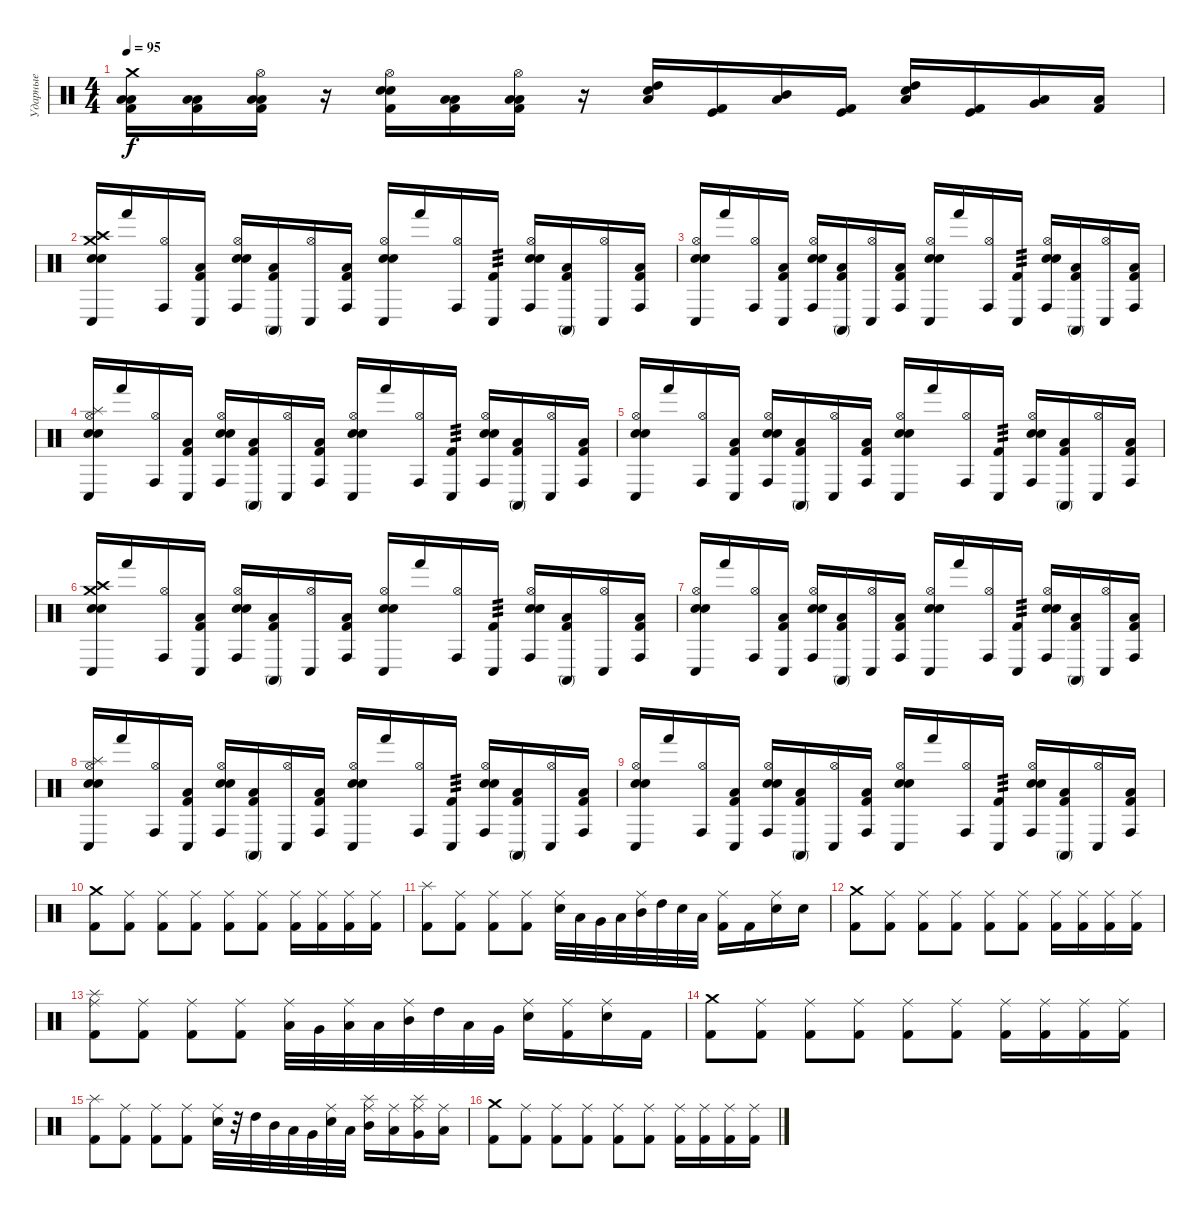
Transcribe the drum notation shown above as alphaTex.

\track ("Ударные" "Ударные") {instrument percussion}
\staff
\articulation defaults
\ts (4 4)
\tempo 95
\clef neutral
\ks c
("Crash medium (hit)" "Low Tom (hit)" "Low Floor Tom (hit)" "Kick (hit) 2").16{dy f} ("Low Tom (hit)" "Low Floor Tom (hit)" "Kick (hit) 2").16 ("Hi-Hat (open)" "Low Tom (hit)" "Low Floor Tom (hit)" "Kick (hit) 2").16 r.16 ("Hi-Hat (open)" "Electric Snare (hit)" "Snare (hit) 2" "Kick (hit) 2").16 ("Low Tom (hit)" "Low Floor Tom (hit)" "Kick (hit) 2").16 ("Hi-Hat (open)" "Low Tom (hit)" "Low Floor Tom (hit)" "Kick (hit) 2").16 r.16 ("Low Tom (hit)" "High Tom (hit)" "Electric Snare (hit)").16{bd 60} ("Kick (hit)" "Kick (hit) 2").16 ("Mid Tom (hit)" "Low Tom (hit)").16{bu 60} ("Kick (hit)" "Kick (hit) 2").16 ("Low Tom (hit)" "High Tom (hit)" "Electric Snare (hit)").16{bd 60} ("Kick (hit)" "Kick (hit) 2").16 ("Very Low Tom (hit)" "Low Tom (hit)").16{bu 60} ("Low Floor Tom (hit)" "Kick (hit) 2").16 |
("Crash medium (hit)" "Crash high (hit)" "Conga low (hit)" "Snare (hit) 2" "Electric Snare (hit)").16 "Hand (hit)".16 ("Hi-Hat (open)" "Conga high (hit)").16 ("Conga low (hit)" "Low Floor Tom (hit)" "Kick (hit) 2").16 ("Hi-Hat (open)" "Conga high (hit)" "Snare (hit) 2" "Electric Snare (hit)").16 ("Conga high (mute)" "Low Floor Tom (hit)" "Kick (hit) 2").16 ("Hi-Hat (open)" "Conga low (hit)").16 ("Conga high (hit)" "Low Floor Tom (hit)" "Kick (hit) 2").16 ("Hi-Hat (open)" "Conga low (hit)" "Snare (hit) 2" "Electric Snare (hit)").16 "Hand (hit)".16 ("Hi-Hat (open)" "Conga high (hit)").16 ("Conga low (hit)" "Kick (hit) 2").16{tp 3} ("Hi-Hat (open)" "Conga high (hit)" "Snare (hit) 2" "Electric Snare (hit)").16 ("Conga high (mute)" "Low Floor Tom (hit)" "Kick (hit) 2").16 ("Hi-Hat (open)" "Conga low (hit)").16 ("Conga high (hit)" "Low Floor Tom (hit)" "Kick (hit) 2").16 |
("Hi-Hat (open)" "Conga low (hit)" "Snare (hit) 2" "Electric Snare (hit)").16 "Hand (hit)".16 ("Hi-Hat (open)" "Conga high (hit)").16 ("Conga low (hit)" "Low Floor Tom (hit)" "Kick (hit) 2").16 ("Hi-Hat (open)" "Conga high (hit)" "Snare (hit) 2" "Electric Snare (hit)").16 ("Conga high (mute)" "Low Floor Tom (hit)" "Kick (hit) 2").16 ("Hi-Hat (open)" "Conga low (hit)").16 ("Conga high (hit)" "Low Floor Tom (hit)" "Kick (hit) 2").16 ("Hi-Hat (open)" "Conga low (hit)" "Snare (hit) 2" "Electric Snare (hit)").16 "Hand (hit)".16 ("Hi-Hat (open)" "Conga high (hit)").16 ("Conga low (hit)" "Kick (hit) 2").16{tp 3} ("Hi-Hat (open)" "Conga high (hit)" "Snare (hit) 2" "Electric Snare (hit)").16 ("Conga high (mute)" "Low Floor Tom (hit)" "Kick (hit) 2").16 ("Hi-Hat (open)" "Conga low (hit)").16 ("Conga high (hit)" "Low Floor Tom (hit)" "Kick (hit) 2").16 |
("Splash (hit)" "Hi-Hat (open)" "Conga low (hit)" "Snare (hit) 2" "Electric Snare (hit)").16 "Hand (hit)".16 ("Hi-Hat (open)" "Conga high (hit)").16 ("Conga low (hit)" "Low Floor Tom (hit)" "Kick (hit) 2").16 ("Hi-Hat (open)" "Conga high (hit)" "Snare (hit) 2" "Electric Snare (hit)").16 ("Conga high (mute)" "Low Floor Tom (hit)" "Kick (hit) 2").16 ("Hi-Hat (open)" "Conga low (hit)").16 ("Conga high (hit)" "Low Floor Tom (hit)" "Kick (hit) 2").16 ("Hi-Hat (open)" "Conga low (hit)" "Snare (hit) 2" "Electric Snare (hit)").16 "Hand (hit)".16 ("Hi-Hat (open)" "Conga high (hit)").16 ("Conga low (hit)" "Kick (hit) 2").16{tp 3} ("Hi-Hat (open)" "Conga high (hit)" "Snare (hit) 2" "Electric Snare (hit)").16 ("Conga high (mute)" "Low Floor Tom (hit)" "Kick (hit) 2").16 ("Hi-Hat (open)" "Conga low (hit)").16 ("Conga high (hit)" "Low Floor Tom (hit)" "Kick (hit) 2").16 |
("Hi-Hat (open)" "Conga low (hit)" "Snare (hit) 2" "Electric Snare (hit)").16 "Hand (hit)".16 ("Hi-Hat (open)" "Conga high (hit)").16 ("Conga low (hit)" "Low Floor Tom (hit)" "Kick (hit) 2").16 ("Hi-Hat (open)" "Conga high (hit)" "Snare (hit) 2" "Electric Snare (hit)").16 ("Conga high (mute)" "Low Floor Tom (hit)" "Kick (hit) 2").16 ("Hi-Hat (open)" "Conga low (hit)").16 ("Conga high (hit)" "Low Floor Tom (hit)" "Kick (hit) 2").16 ("Hi-Hat (open)" "Conga low (hit)" "Snare (hit) 2" "Electric Snare (hit)").16 "Hand (hit)".16 ("Hi-Hat (open)" "Conga high (hit)").16 ("Conga low (hit)" "Kick (hit) 2").16{tp 3} ("Hi-Hat (open)" "Conga high (hit)" "Snare (hit) 2" "Electric Snare (hit)").16 ("Conga high (mute)" "Low Floor Tom (hit)" "Kick (hit) 2").16 ("Hi-Hat (open)" "Conga low (hit)").16 ("Conga high (hit)" "Low Floor Tom (hit)" "Kick (hit) 2").16 |
("Crash medium (hit)" "Crash high (hit)" "Conga low (hit)" "Snare (hit) 2" "Electric Snare (hit)").16 "Hand (hit)".16 ("Hi-Hat (open)" "Conga high (hit)").16 ("Conga low (hit)" "Low Floor Tom (hit)" "Kick (hit) 2").16 ("Hi-Hat (open)" "Conga high (hit)" "Snare (hit) 2" "Electric Snare (hit)").16 ("Conga high (mute)" "Low Floor Tom (hit)" "Kick (hit) 2").16 ("Hi-Hat (open)" "Conga low (hit)").16 ("Conga high (hit)" "Low Floor Tom (hit)" "Kick (hit) 2").16 ("Hi-Hat (open)" "Conga low (hit)" "Snare (hit) 2" "Electric Snare (hit)").16 "Hand (hit)".16 ("Hi-Hat (open)" "Conga high (hit)").16 ("Conga low (hit)" "Kick (hit) 2").16{tp 3} ("Hi-Hat (open)" "Conga high (hit)" "Snare (hit) 2" "Electric Snare (hit)").16 ("Conga high (mute)" "Low Floor Tom (hit)" "Kick (hit) 2").16 ("Hi-Hat (open)" "Conga low (hit)").16 ("Conga high (hit)" "Low Floor Tom (hit)" "Kick (hit) 2").16 |
("Hi-Hat (open)" "Conga low (hit)" "Snare (hit) 2" "Electric Snare (hit)").16 "Hand (hit)".16 ("Hi-Hat (open)" "Conga high (hit)").16 ("Conga low (hit)" "Low Floor Tom (hit)" "Kick (hit) 2").16 ("Hi-Hat (open)" "Conga high (hit)" "Snare (hit) 2" "Electric Snare (hit)").16 ("Conga high (mute)" "Low Floor Tom (hit)" "Kick (hit) 2").16 ("Hi-Hat (open)" "Conga low (hit)").16 ("Conga high (hit)" "Low Floor Tom (hit)" "Kick (hit) 2").16 ("Hi-Hat (open)" "Conga low (hit)" "Snare (hit) 2" "Electric Snare (hit)").16 "Hand (hit)".16 ("Hi-Hat (open)" "Conga high (hit)").16 ("Conga low (hit)" "Kick (hit) 2").16{tp 3} ("Hi-Hat (open)" "Conga high (hit)" "Snare (hit) 2" "Electric Snare (hit)").16 ("Conga high (mute)" "Low Floor Tom (hit)" "Kick (hit) 2").16 ("Hi-Hat (open)" "Conga low (hit)").16 ("Conga high (hit)" "Low Floor Tom (hit)" "Kick (hit) 2").16 |
("Splash (hit)" "Hi-Hat (open)" "Conga low (hit)" "Snare (hit) 2" "Electric Snare (hit)").16 "Hand (hit)".16 ("Hi-Hat (open)" "Conga high (hit)").16 ("Conga low (hit)" "Low Floor Tom (hit)" "Kick (hit) 2").16 ("Hi-Hat (open)" "Conga high (hit)" "Snare (hit) 2" "Electric Snare (hit)").16 ("Conga high (mute)" "Low Floor Tom (hit)" "Kick (hit) 2").16 ("Hi-Hat (open)" "Conga low (hit)").16 ("Conga high (hit)" "Low Floor Tom (hit)" "Kick (hit) 2").16 ("Hi-Hat (open)" "Conga low (hit)" "Snare (hit) 2" "Electric Snare (hit)").16 "Hand (hit)".16 ("Hi-Hat (open)" "Conga high (hit)").16 ("Conga low (hit)" "Kick (hit) 2").16{tp 3} ("Hi-Hat (open)" "Conga high (hit)" "Snare (hit) 2" "Electric Snare (hit)").16 ("Conga high (mute)" "Low Floor Tom (hit)" "Kick (hit) 2").16 ("Hi-Hat (open)" "Conga low (hit)").16 ("Conga high (hit)" "Low Floor Tom (hit)" "Kick (hit) 2").16 |
("Hi-Hat (open)" "Conga low (hit)" "Snare (hit) 2" "Electric Snare (hit)").16 "Hand (hit)".16 ("Hi-Hat (open)" "Conga high (hit)").16 ("Conga low (hit)" "Low Floor Tom (hit)" "Kick (hit) 2").16 ("Hi-Hat (open)" "Conga high (hit)" "Snare (hit) 2" "Electric Snare (hit)").16 ("Conga high (mute)" "Low Floor Tom (hit)" "Kick (hit) 2").16 ("Hi-Hat (open)" "Conga low (hit)").16 ("Conga high (hit)" "Low Floor Tom (hit)" "Kick (hit) 2").16 ("Hi-Hat (open)" "Conga low (hit)" "Snare (hit) 2" "Electric Snare (hit)").16 "Hand (hit)".16 ("Hi-Hat (open)" "Conga high (hit)").16 ("Conga low (hit)" "Kick (hit) 2").16{tp 3} ("Hi-Hat (open)" "Conga high (hit)" "Snare (hit) 2" "Electric Snare (hit)").16 ("Conga high (mute)" "Low Floor Tom (hit)" "Kick (hit) 2").16 ("Hi-Hat (open)" "Conga low (hit)").16 ("Conga high (hit)" "Low Floor Tom (hit)" "Kick (hit) 2").16 |
("Crash medium (hit)" "Kick (hit) 2").8 ("Ride (middle)" "Kick (hit) 2").8 ("Ride (middle)" "Kick (hit) 2").8 ("Ride (middle)" "Kick (hit) 2").8 ("Ride (middle)" "Kick (hit) 2").8 ("Ride (middle)" "Kick (hit) 2").8 ("Ride (middle)" "Kick (hit) 2").16 ("Ride (middle)" "Kick (hit) 2").16 ("Ride (middle)" "Kick (hit) 2").16 ("Ride (middle)" "Kick (hit) 2").16 |
("Splash (hit)" "Kick (hit) 2").8 ("Ride (middle)" "Kick (hit) 2").8 ("Ride (middle)" "Kick (hit) 2").8 ("Ride (middle)" "Kick (hit) 2").8 ("Ride (middle)" "Electric Snare (hit)").32 "Low Tom (hit)".32 "Very Low Tom (hit)".32 "Low Floor Tom (hit)".32 ("Ride (middle)" "Mid Tom (hit)").32 "High Tom (hit)".32 "Electric Snare (hit)".32 "Low Tom (hit)".32 ("Ride (middle)" "Kick (hit) 2").16 "Kick (hit) 2".16 ("Ride (middle)" "Electric Snare (hit)").16 "Electric Snare (hit)".16 |
("Crash medium (hit)" "Kick (hit) 2").8 ("Ride (middle)" "Kick (hit) 2").8 ("Ride (middle)" "Kick (hit) 2").8 ("Ride (middle)" "Kick (hit) 2").8 ("Ride (middle)" "Kick (hit) 2").8 ("Ride (middle)" "Kick (hit) 2").8 ("Ride (middle)" "Kick (hit) 2").16 ("Ride (middle)" "Kick (hit) 2").16 ("Ride (middle)" "Kick (hit) 2").16 ("Ride (middle)" "Kick (hit) 2").16 |
("Splash (hit)" "Ride (middle)" "Kick (hit) 2").8 ("Ride (middle)" "Kick (hit) 2").8 ("Ride (middle)" "Kick (hit) 2").8 ("Ride (middle)" "Kick (hit) 2").8 ("Ride (middle)" "Low Tom (hit)").32 "Very Low Tom (hit)".32 ("Ride (middle)" "Low Floor Tom (hit)").32 "Low Tom (hit)".32 ("Ride (middle)" "Mid Tom (hit)").32 "High Tom (hit)".32 "Low Tom (hit)".32 "Very Low Tom (hit)".32 ("Ride (middle)" "Electric Snare (hit)").16 ("Ride (middle)" "Kick (hit) 2").16 ("Ride (middle)" "Electric Snare (hit)").16 "Kick (hit) 2".16 |
("Crash medium (hit)" "Kick (hit) 2").8 ("Ride (middle)" "Kick (hit) 2").8 ("Ride (middle)" "Kick (hit) 2").8 ("Ride (middle)" "Kick (hit) 2").8 ("Ride (middle)" "Kick (hit) 2").8 ("Ride (middle)" "Kick (hit) 2").8 ("Ride (middle)" "Kick (hit) 2").16 ("Ride (middle)" "Kick (hit) 2").16 ("Ride (middle)" "Kick (hit) 2").16 ("Ride (middle)" "Kick (hit) 2").16 |
("Splash (hit)" "Kick (hit) 2").8 ("Ride (middle)" "Kick (hit) 2").8 ("Ride (middle)" "Kick (hit) 2").8 ("Ride (middle)" "Kick (hit) 2").8 ("Ride (middle)" "Electric Snare (hit)").32 r.32 "High Tom (hit)".32 "Mid Tom (hit)".32 "Low Tom (hit)".32 "Very Low Tom (hit)".32 ("Ride (middle)" "Electric Snare (hit)").32 "Low Floor Tom (hit)".32 ("Splash (hit)" "Ride (middle)" "Mid Tom (hit)").16 ("Ride (middle)" "Low Tom (hit)").16 ("Splash (hit)" "Ride (middle)" "Very Low Tom (hit)").16 ("Ride (middle)" "Low Floor Tom (hit)").16 |
("Crash medium (hit)" "Kick (hit) 2").8 ("Ride (middle)" "Kick (hit) 2").8 ("Ride (middle)" "Kick (hit) 2").8 ("Ride (middle)" "Kick (hit) 2").8 ("Ride (middle)" "Kick (hit) 2").8 ("Ride (middle)" "Kick (hit) 2").8 ("Ride (middle)" "Kick (hit) 2").16 ("Ride (middle)" "Kick (hit) 2").16 ("Ride (middle)" "Kick (hit) 2").16 ("Ride (middle)" "Kick (hit) 2").16
